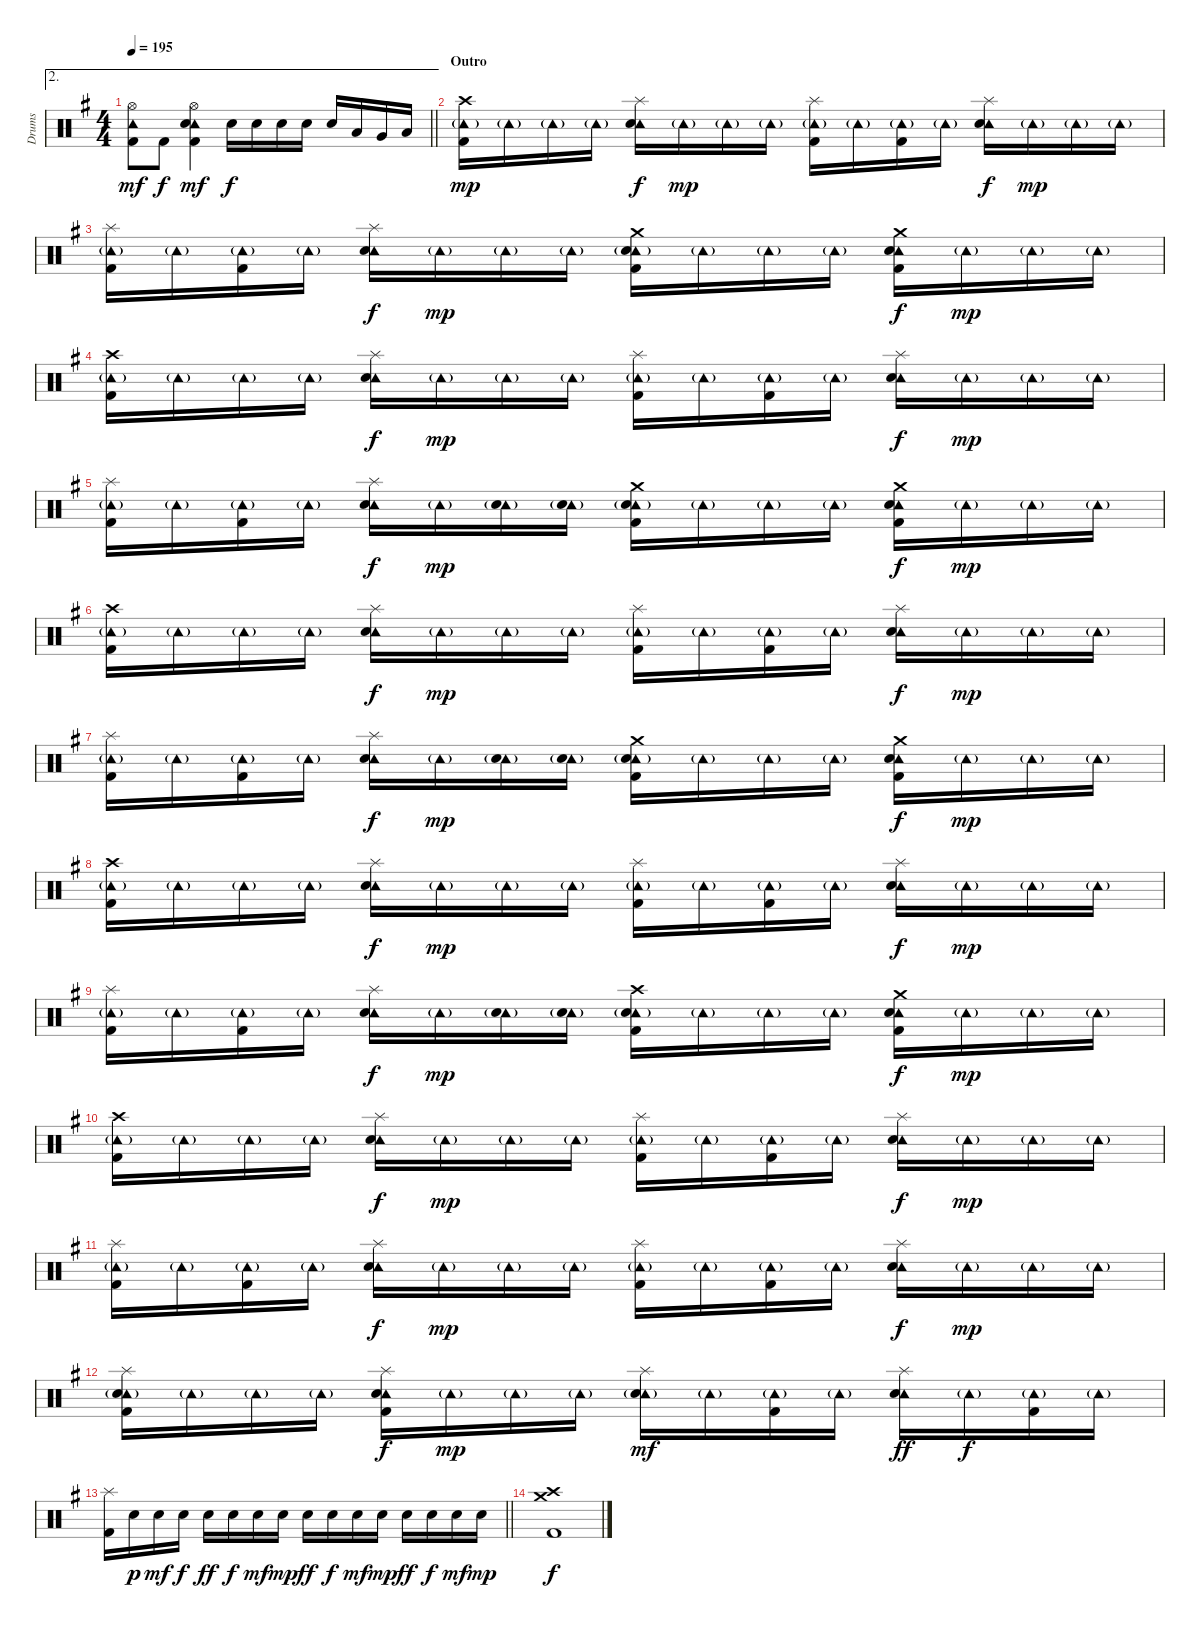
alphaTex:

\track ("Drums" "Drums") {instrument percussion}
\staff {score}
\articulation defaults
\ae 2
\ts (4 4)
\tempo 195
\clef neutral
\barLineRight lightlight
\ks g
("Hi-Hat (open)" "Tambourine (hit)" "Kick (hit) 2").8{dy mf} "Kick (hit) 2".8{dy f} ("Hi-Hat (open)" "Tambourine (hit)" "Electric Snare (hit)" "Kick (hit) 2").4{dy mf} "Electric Snare (hit)".16{dy f} "Electric Snare (hit)".16 "Electric Snare (hit)".16 "Electric Snare (hit)".16 "Electric Snare (hit)".16 "Low Tom (hit)".16 "Very Low Tom (hit)".16 "Low Floor Tom (hit)".16 |
\section ("" "Outro")
("Crash high (hit)" "Tambourine (hit)"{g} "Kick (hit) 2").16{dy mp} "Tambourine (hit)"{g}.16 "Tambourine (hit)"{g}.16 "Tambourine (hit)"{g}.16 ("Splash (hit)" "Tambourine (hit)" "Electric Snare (hit)").16{dy f} "Tambourine (hit)"{g}.16{dy mp} "Tambourine (hit)"{g}.16 "Tambourine (hit)"{g}.16 ("Splash (hit)" "Tambourine (hit)"{g} "Kick (hit) 2").16 "Tambourine (hit)"{g}.16 ("Tambourine (hit)"{g} "Kick (hit) 2").16 "Tambourine (hit)"{g}.16 ("Splash (hit)" "Tambourine (hit)" "Electric Snare (hit)").16{dy f} "Tambourine (hit)"{g}.16{dy mp} "Tambourine (hit)"{g}.16 "Tambourine (hit)"{g}.16 |
("Splash (hit)" "Tambourine (hit)"{g} "Kick (hit) 2").16 "Tambourine (hit)"{g}.16 ("Tambourine (hit)"{g} "Kick (hit) 2").16 "Tambourine (hit)"{g}.16 ("Splash (hit)" "Tambourine (hit)" "Electric Snare (hit)").16{dy f} "Tambourine (hit)"{g}.16{dy mp} "Tambourine (hit)"{g}.16 "Tambourine (hit)"{g}.16 ("Crash medium (hit)" "Tambourine (hit)"{g} "Electric Snare (hit)" "Kick (hit) 2").16 "Tambourine (hit)"{g}.16 "Tambourine (hit)"{g}.16 "Tambourine (hit)"{g}.16 ("Crash medium (hit)" "Tambourine (hit)" "Electric Snare (hit)" "Kick (hit) 2").16{dy f} "Tambourine (hit)"{g}.16{dy mp} "Tambourine (hit)"{g}.16 "Tambourine (hit)"{g}.16 |
("Crash high (hit)" "Tambourine (hit)"{g} "Kick (hit) 2").16 "Tambourine (hit)"{g}.16 "Tambourine (hit)"{g}.16 "Tambourine (hit)"{g}.16 ("Splash (hit)" "Tambourine (hit)" "Electric Snare (hit)").16{dy f} "Tambourine (hit)"{g}.16{dy mp} "Tambourine (hit)"{g}.16 "Tambourine (hit)"{g}.16 ("Splash (hit)" "Tambourine (hit)"{g} "Kick (hit) 2").16 "Tambourine (hit)"{g}.16 ("Tambourine (hit)"{g} "Kick (hit) 2").16 "Tambourine (hit)"{g}.16 ("Splash (hit)" "Tambourine (hit)" "Electric Snare (hit)").16{dy f} "Tambourine (hit)"{g}.16{dy mp} "Tambourine (hit)"{g}.16 "Tambourine (hit)"{g}.16 |
("Splash (hit)" "Tambourine (hit)"{g} "Kick (hit) 2").16 "Tambourine (hit)"{g}.16 ("Tambourine (hit)"{g} "Kick (hit) 2").16 "Tambourine (hit)"{g}.16 ("Splash (hit)" "Tambourine (hit)" "Electric Snare (hit)").16{dy f} "Tambourine (hit)"{g}.16{dy mp} ("Tambourine (hit)"{g} "Electric Snare (hit)").16 ("Tambourine (hit)"{g} "Electric Snare (hit)").16 ("Crash medium (hit)" "Tambourine (hit)"{g} "Electric Snare (hit)" "Kick (hit) 2").16 "Tambourine (hit)"{g}.16 "Tambourine (hit)"{g}.16 "Tambourine (hit)"{g}.16 ("Crash medium (hit)" "Tambourine (hit)" "Electric Snare (hit)" "Kick (hit) 2").16{dy f} "Tambourine (hit)"{g}.16{dy mp} "Tambourine (hit)"{g}.16 "Tambourine (hit)"{g}.16 |
("Crash high (hit)" "Tambourine (hit)"{g} "Kick (hit) 2").16 "Tambourine (hit)"{g}.16 "Tambourine (hit)"{g}.16 "Tambourine (hit)"{g}.16 ("Splash (hit)" "Tambourine (hit)" "Electric Snare (hit)").16{dy f} "Tambourine (hit)"{g}.16{dy mp} "Tambourine (hit)"{g}.16 "Tambourine (hit)"{g}.16 ("Splash (hit)" "Tambourine (hit)"{g} "Kick (hit) 2").16 "Tambourine (hit)"{g}.16 ("Tambourine (hit)"{g} "Kick (hit) 2").16 "Tambourine (hit)"{g}.16 ("Splash (hit)" "Tambourine (hit)" "Electric Snare (hit)").16{dy f} "Tambourine (hit)"{g}.16{dy mp} "Tambourine (hit)"{g}.16 "Tambourine (hit)"{g}.16 |
("Splash (hit)" "Tambourine (hit)"{g} "Kick (hit) 2").16 "Tambourine (hit)"{g}.16 ("Tambourine (hit)"{g} "Kick (hit) 2").16 "Tambourine (hit)"{g}.16 ("Splash (hit)" "Tambourine (hit)" "Electric Snare (hit)").16{dy f} "Tambourine (hit)"{g}.16{dy mp} ("Tambourine (hit)"{g} "Electric Snare (hit)").16 ("Tambourine (hit)"{g} "Electric Snare (hit)").16 ("Crash medium (hit)" "Tambourine (hit)"{g} "Electric Snare (hit)" "Kick (hit) 2").16 "Tambourine (hit)"{g}.16 "Tambourine (hit)"{g}.16 "Tambourine (hit)"{g}.16 ("Crash medium (hit)" "Tambourine (hit)" "Electric Snare (hit)" "Kick (hit) 2").16{dy f} "Tambourine (hit)"{g}.16{dy mp} "Tambourine (hit)"{g}.16 "Tambourine (hit)"{g}.16 |
("Crash high (hit)" "Tambourine (hit)"{g} "Kick (hit) 2").16 "Tambourine (hit)"{g}.16 "Tambourine (hit)"{g}.16 "Tambourine (hit)"{g}.16 ("Splash (hit)" "Tambourine (hit)" "Electric Snare (hit)").16{dy f} "Tambourine (hit)"{g}.16{dy mp} "Tambourine (hit)"{g}.16 "Tambourine (hit)"{g}.16 ("Splash (hit)" "Tambourine (hit)"{g} "Kick (hit) 2").16 "Tambourine (hit)"{g}.16 ("Tambourine (hit)"{g} "Kick (hit) 2").16 "Tambourine (hit)"{g}.16 ("Splash (hit)" "Tambourine (hit)" "Electric Snare (hit)").16{dy f} "Tambourine (hit)"{g}.16{dy mp} "Tambourine (hit)"{g}.16 "Tambourine (hit)"{g}.16 |
("Splash (hit)" "Tambourine (hit)"{g} "Kick (hit) 2").16 "Tambourine (hit)"{g}.16 ("Tambourine (hit)"{g} "Kick (hit) 2").16 "Tambourine (hit)"{g}.16 ("Splash (hit)" "Tambourine (hit)" "Electric Snare (hit)").16{dy f} "Tambourine (hit)"{g}.16{dy mp} ("Tambourine (hit)"{g} "Electric Snare (hit)").16 ("Tambourine (hit)"{g} "Electric Snare (hit)").16 ("Crash high (hit)" "Tambourine (hit)"{g} "Electric Snare (hit)" "Kick (hit) 2").16 "Tambourine (hit)"{g}.16 "Tambourine (hit)"{g}.16 "Tambourine (hit)"{g}.16 ("Crash medium (hit)" "Tambourine (hit)" "Electric Snare (hit)" "Kick (hit) 2").16{dy f} "Tambourine (hit)"{g}.16{dy mp} "Tambourine (hit)"{g}.16 "Tambourine (hit)"{g}.16 |
("Crash high (hit)" "Tambourine (hit)"{g} "Kick (hit) 2").16 "Tambourine (hit)"{g}.16 "Tambourine (hit)"{g}.16 "Tambourine (hit)"{g}.16 ("Splash (hit)" "Tambourine (hit)" "Electric Snare (hit)").16{dy f} "Tambourine (hit)"{g}.16{dy mp} "Tambourine (hit)"{g}.16 "Tambourine (hit)"{g}.16 ("Splash (hit)" "Tambourine (hit)"{g} "Kick (hit) 2").16 "Tambourine (hit)"{g}.16 ("Tambourine (hit)"{g} "Kick (hit) 2").16 "Tambourine (hit)"{g}.16 ("Splash (hit)" "Tambourine (hit)" "Electric Snare (hit)").16{dy f} "Tambourine (hit)"{g}.16{dy mp} "Tambourine (hit)"{g}.16 "Tambourine (hit)"{g}.16 |
("Splash (hit)" "Tambourine (hit)"{g} "Kick (hit) 2").16 "Tambourine (hit)"{g}.16 ("Tambourine (hit)"{g} "Kick (hit) 2").16 "Tambourine (hit)"{g}.16 ("Splash (hit)" "Tambourine (hit)" "Electric Snare (hit)").16{dy f} "Tambourine (hit)"{g}.16{dy mp} "Tambourine (hit)"{g}.16 "Tambourine (hit)"{g}.16 ("Splash (hit)" "Tambourine (hit)"{g} "Kick (hit) 2").16 "Tambourine (hit)"{g}.16 ("Tambourine (hit)"{g} "Kick (hit) 2").16 "Tambourine (hit)"{g}.16 ("Splash (hit)" "Tambourine (hit)" "Electric Snare (hit)").16{dy f} "Tambourine (hit)"{g}.16{dy mp} "Tambourine (hit)"{g}.16 "Tambourine (hit)"{g}.16 |
("Splash (hit)" "Tambourine (hit)"{g} "Electric Snare (hit)" "Kick (hit) 2").16 "Tambourine (hit)"{g}.16 "Tambourine (hit)"{g}.16 "Tambourine (hit)"{g}.16 ("Splash (hit)" "Tambourine (hit)" "Electric Snare (hit)" "Kick (hit) 2").16{dy f} "Tambourine (hit)"{g}.16{dy mp} "Tambourine (hit)"{g}.16 "Tambourine (hit)"{g}.16 ("Splash (hit)" "Tambourine (hit)"{g} "Electric Snare (hit)").16{dy mf} "Tambourine (hit)"{g}.16 ("Tambourine (hit)"{g} "Kick (hit) 2").16 "Tambourine (hit)"{g}.16 ("Splash (hit)" "Tambourine (hit)" "Electric Snare (hit)").16{dy ff} "Tambourine (hit)"{g}.16{dy f} ("Tambourine (hit)"{g} "Kick (hit) 2").16 "Tambourine (hit)"{g}.16 |
\barLineRight lightlight
("Splash (hit)" "Kick (hit) 2").16 "Electric Snare (hit)".16{dy p} "Electric Snare (hit)".16{dy mf} "Electric Snare (hit)".16{dy f} "Electric Snare (hit)".16{dy ff} "Electric Snare (hit)".16{dy f} "Electric Snare (hit)".16{dy mf} "Electric Snare (hit)".16{dy mp} "Electric Snare (hit)".16{dy ff} "Electric Snare (hit)".16{dy f} "Electric Snare (hit)".16{dy mf} "Electric Snare (hit)".16{dy mp} "Electric Snare (hit)".16{dy ff} "Electric Snare (hit)".16{dy f} "Electric Snare (hit)".16{dy mf} "Electric Snare (hit)".16{dy mp} |
("Crash medium (hit)" "Crash high (hit)" "Kick (hit) 2").1{dy f}
